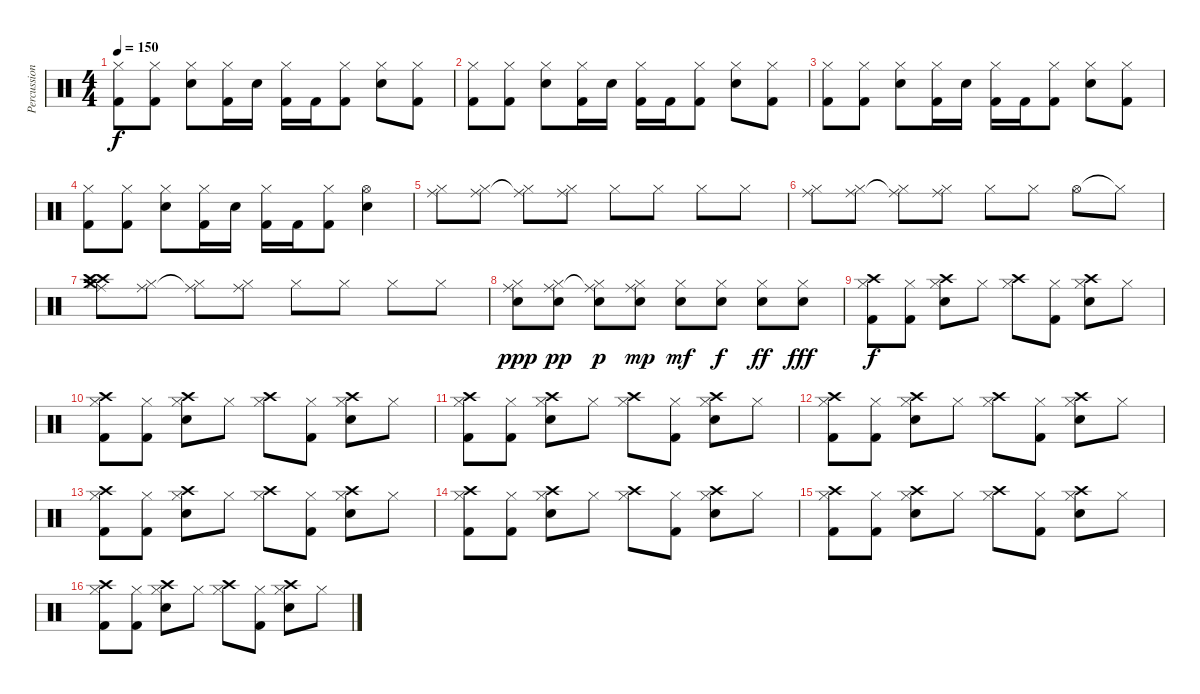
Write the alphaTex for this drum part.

\track ("Percussion" "Percussion") {instrument percussion}
\staff {score}
\articulation defaults
\ts (4 4)
\tempo 150
\clef neutral
\ks c
("Hi-Hat (closed)" "Kick (hit) 2").8{dy f} ("Hi-Hat (closed)" "Kick (hit) 2").8 ("Hi-Hat (closed)" "Electric Snare (hit)").8 ("Hi-Hat (closed)" "Kick (hit) 2").16 "Electric Snare (hit)".16 ("Hi-Hat (closed)" "Kick (hit) 2").16 "Kick (hit) 2".16 ("Hi-Hat (closed)" "Kick (hit) 2").8 ("Hi-Hat (closed)" "Electric Snare (hit)").8 ("Hi-Hat (closed)" "Kick (hit) 2").8 |
("Hi-Hat (closed)" "Kick (hit) 2").8 ("Hi-Hat (closed)" "Kick (hit) 2").8 ("Hi-Hat (closed)" "Electric Snare (hit)").8 ("Hi-Hat (closed)" "Kick (hit) 2").16 "Electric Snare (hit)".16 ("Hi-Hat (closed)" "Kick (hit) 2").16 "Kick (hit) 2".16 ("Hi-Hat (closed)" "Kick (hit) 2").8 ("Hi-Hat (closed)" "Electric Snare (hit)").8 ("Hi-Hat (closed)" "Kick (hit) 2").8 |
("Hi-Hat (closed)" "Kick (hit) 2").8 ("Hi-Hat (closed)" "Kick (hit) 2").8 ("Hi-Hat (closed)" "Electric Snare (hit)").8 ("Hi-Hat (closed)" "Kick (hit) 2").16 "Electric Snare (hit)".16 ("Hi-Hat (closed)" "Kick (hit) 2").16 "Kick (hit) 2".16 ("Hi-Hat (closed)" "Kick (hit) 2").8 ("Hi-Hat (closed)" "Electric Snare (hit)").8 ("Hi-Hat (closed)" "Kick (hit) 2").8 |
("Hi-Hat (closed)" "Kick (hit) 2").8 ("Hi-Hat (closed)" "Kick (hit) 2").8 ("Hi-Hat (closed)" "Electric Snare (hit)").8 ("Hi-Hat (closed)" "Kick (hit) 2").16 "Electric Snare (hit)".16 ("Hi-Hat (closed)" "Kick (hit) 2").16 "Kick (hit) 2".16 ("Hi-Hat (closed)" "Kick (hit) 2").8 ("Hi-Hat (open)" "Electric Snare (hit)").4 |
("Hi-Hat (closed)" "Ride (middle)").8 ("Hi-Hat (closed)" "Ride (middle)").8 ("Hi-Hat (closed)" "Ride (middle)"{t}).8 ("Hi-Hat (closed)" "Ride (middle)").8 "Hi-Hat (closed)".8 "Hi-Hat (closed)".8 "Hi-Hat (closed)".8 "Hi-Hat (closed)".8 |
("Hi-Hat (closed)" "Ride (middle)").8 ("Hi-Hat (closed)" "Ride (middle)").8 ("Hi-Hat (closed)" "Ride (middle)"{t}).8 ("Hi-Hat (closed)" "Ride (middle)").8 "Hi-Hat (closed)".8 "Hi-Hat (closed)".8 "Hi-Hat (open)".8 "Hi-Hat (closed)"{t}.8 |
("Hi-Hat (closed)" "Crash medium (hit)" "Ride (middle)" "Crash high (hit)" "Crash high (hit)").8 ("Hi-Hat (closed)" "Ride (middle)").8 ("Hi-Hat (closed)" "Ride (middle)"{t}).8 ("Hi-Hat (closed)" "Ride (middle)").8 "Hi-Hat (closed)".8 "Hi-Hat (closed)".8 "Hi-Hat (closed)".8 "Hi-Hat (closed)".8 |
("Hi-Hat (closed)" "Electric Snare (hit)" "Ride (middle)").8{dy ppp} ("Hi-Hat (closed)" "Electric Snare (hit)" "Ride (middle)").8{dy pp} ("Hi-Hat (closed)" "Electric Snare (hit)" "Ride (middle)"{t}).8{dy p} ("Hi-Hat (closed)" "Electric Snare (hit)" "Ride (middle)").8{dy mp} ("Hi-Hat (closed)" "Electric Snare (hit)").8{dy mf} ("Hi-Hat (closed)" "Electric Snare (hit)").8{dy f} ("Hi-Hat (closed)" "Electric Snare (hit)").8{dy ff} ("Hi-Hat (closed)" "Electric Snare (hit)").8{dy fff} |
("Hi-Hat (closed)" "Kick (hit) 2" "Crash high (hit)").8{dy f} ("Hi-Hat (closed)" "Kick (hit) 2").8 ("Hi-Hat (closed)" "Electric Snare (hit)" "Crash high (hit)").8 "Hi-Hat (closed)".8 ("Hi-Hat (closed)" "Crash high (hit)").8 ("Hi-Hat (closed)" "Kick (hit) 2").8 ("Hi-Hat (closed)" "Electric Snare (hit)" "Crash high (hit)").8 "Hi-Hat (closed)".8 |
("Hi-Hat (closed)" "Kick (hit) 2" "Crash high (hit)").8 ("Hi-Hat (closed)" "Kick (hit) 2").8 ("Hi-Hat (closed)" "Electric Snare (hit)" "Crash high (hit)").8 "Hi-Hat (closed)".8 ("Hi-Hat (closed)" "Crash high (hit)").8 ("Hi-Hat (closed)" "Kick (hit) 2").8 ("Hi-Hat (closed)" "Electric Snare (hit)" "Crash high (hit)").8 "Hi-Hat (closed)".8 |
("Hi-Hat (closed)" "Kick (hit) 2" "Crash high (hit)").8 ("Hi-Hat (closed)" "Kick (hit) 2").8 ("Hi-Hat (closed)" "Electric Snare (hit)" "Crash high (hit)").8 "Hi-Hat (closed)".8 ("Hi-Hat (closed)" "Crash high (hit)").8 ("Hi-Hat (closed)" "Kick (hit) 2").8 ("Hi-Hat (closed)" "Electric Snare (hit)" "Crash high (hit)").8 "Hi-Hat (closed)".8 |
("Hi-Hat (closed)" "Kick (hit) 2" "Crash high (hit)").8 ("Hi-Hat (closed)" "Kick (hit) 2").8 ("Hi-Hat (closed)" "Electric Snare (hit)" "Crash high (hit)").8 "Hi-Hat (closed)".8 ("Hi-Hat (closed)" "Crash high (hit)").8 ("Hi-Hat (closed)" "Kick (hit) 2").8 ("Hi-Hat (closed)" "Electric Snare (hit)" "Crash high (hit)").8 "Hi-Hat (closed)".8 |
("Hi-Hat (closed)" "Kick (hit) 2" "Crash high (hit)").8 ("Hi-Hat (closed)" "Kick (hit) 2").8 ("Hi-Hat (closed)" "Electric Snare (hit)" "Crash high (hit)").8 "Hi-Hat (closed)".8 ("Hi-Hat (closed)" "Crash high (hit)").8 ("Hi-Hat (closed)" "Kick (hit) 2").8 ("Hi-Hat (closed)" "Electric Snare (hit)" "Crash high (hit)").8 "Hi-Hat (closed)".8 |
("Hi-Hat (closed)" "Kick (hit) 2" "Crash high (hit)").8 ("Hi-Hat (closed)" "Kick (hit) 2").8 ("Hi-Hat (closed)" "Electric Snare (hit)" "Crash high (hit)").8 "Hi-Hat (closed)".8 ("Hi-Hat (closed)" "Crash high (hit)").8 ("Hi-Hat (closed)" "Kick (hit) 2").8 ("Hi-Hat (closed)" "Electric Snare (hit)" "Crash high (hit)").8 "Hi-Hat (closed)".8 |
("Hi-Hat (closed)" "Kick (hit) 2" "Crash high (hit)").8 ("Hi-Hat (closed)" "Kick (hit) 2").8 ("Hi-Hat (closed)" "Electric Snare (hit)" "Crash high (hit)").8 "Hi-Hat (closed)".8 ("Hi-Hat (closed)" "Crash high (hit)").8 ("Hi-Hat (closed)" "Kick (hit) 2").8 ("Hi-Hat (closed)" "Electric Snare (hit)" "Crash high (hit)").8 "Hi-Hat (closed)".8 |
("Hi-Hat (closed)" "Kick (hit) 2" "Crash high (hit)").8 ("Hi-Hat (closed)" "Kick (hit) 2").8 ("Hi-Hat (closed)" "Electric Snare (hit)" "Crash high (hit)").8 "Hi-Hat (closed)".8 ("Hi-Hat (closed)" "Crash high (hit)").8 ("Hi-Hat (closed)" "Kick (hit) 2").8 ("Hi-Hat (closed)" "Electric Snare (hit)" "Crash high (hit)").8 "Hi-Hat (closed)".8
